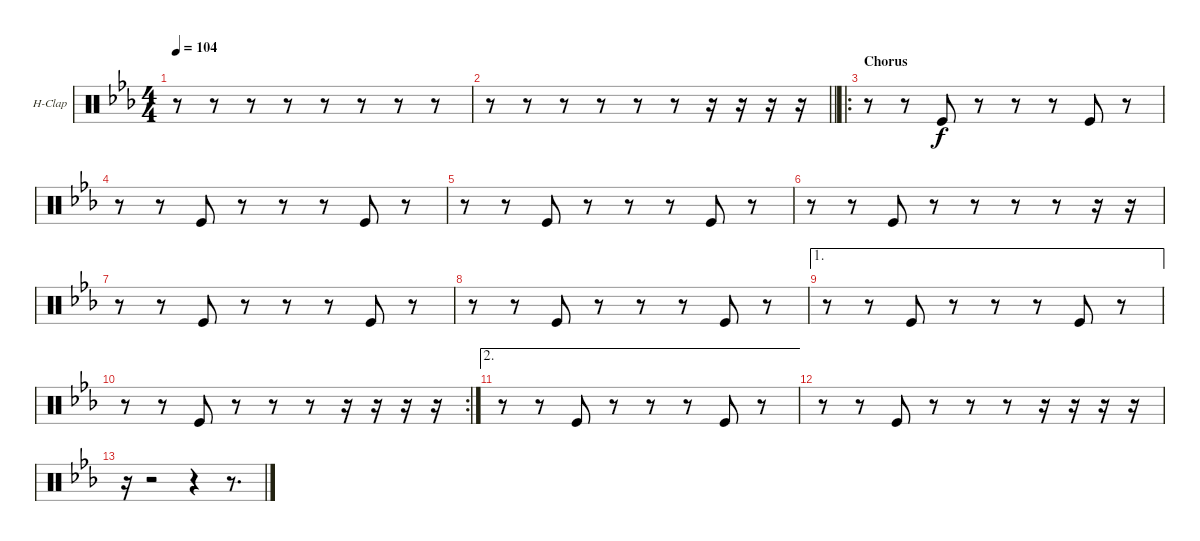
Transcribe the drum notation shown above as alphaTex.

\bracketExtendMode groupsimilarinstruments
\firstSystemTrackNameOrientation horizontal
\otherSystemsTrackNameOrientation horizontal
\track ("Hand Clap" "H-Clap") {instrument percussion}
\staff {score}
\articulation defaults
\ts (4 4)
\tempo 104
\clef neutral
\ks eb
r.8{dy f} r.8 r.8 r.8 r.8 r.8 r.8 r.8 |
\barLineRight lightlight
r.8 r.8 r.8 r.8 r.8 r.8 r.16 r.16 r.16 r.16 |
\ro
\section ("" "Chorus")
r.8 r.8 "Kick (hit)".8 r.8 r.8 r.8 "Kick (hit)".8 r.8 |
r.8 r.8 "Kick (hit)".8 r.8 r.8 r.8 "Kick (hit)".8 r.8 |
r.8 r.8 "Kick (hit)".8 r.8 r.8 r.8 "Kick (hit)".8 r.8 |
r.8 r.8 "Kick (hit)".8 r.8 r.8 r.8 r.8 r.16 r.16 |
r.8 r.8 "Kick (hit)".8 r.8 r.8 r.8 "Kick (hit)".8 r.8 |
r.8 r.8 "Kick (hit)".8 r.8 r.8 r.8 "Kick (hit)".8 r.8 |
\ae 1
r.8 r.8 "Kick (hit)".8 r.8 r.8 r.8 "Kick (hit)".8 r.8 |
\rc 2
r.8 r.8 "Kick (hit)".8 r.8 r.8 r.8 r.16 r.16 r.16 r.16 |
\ae 2
r.8 r.8 "Kick (hit)".8 r.8 r.8 r.8 "Kick (hit)".8 r.8 |
r.8 r.8 "Kick (hit)".8 r.8 r.8 r.8 r.16 r.16 r.16 r.16 |
r.16 r.2 r.4 r.8{d}
